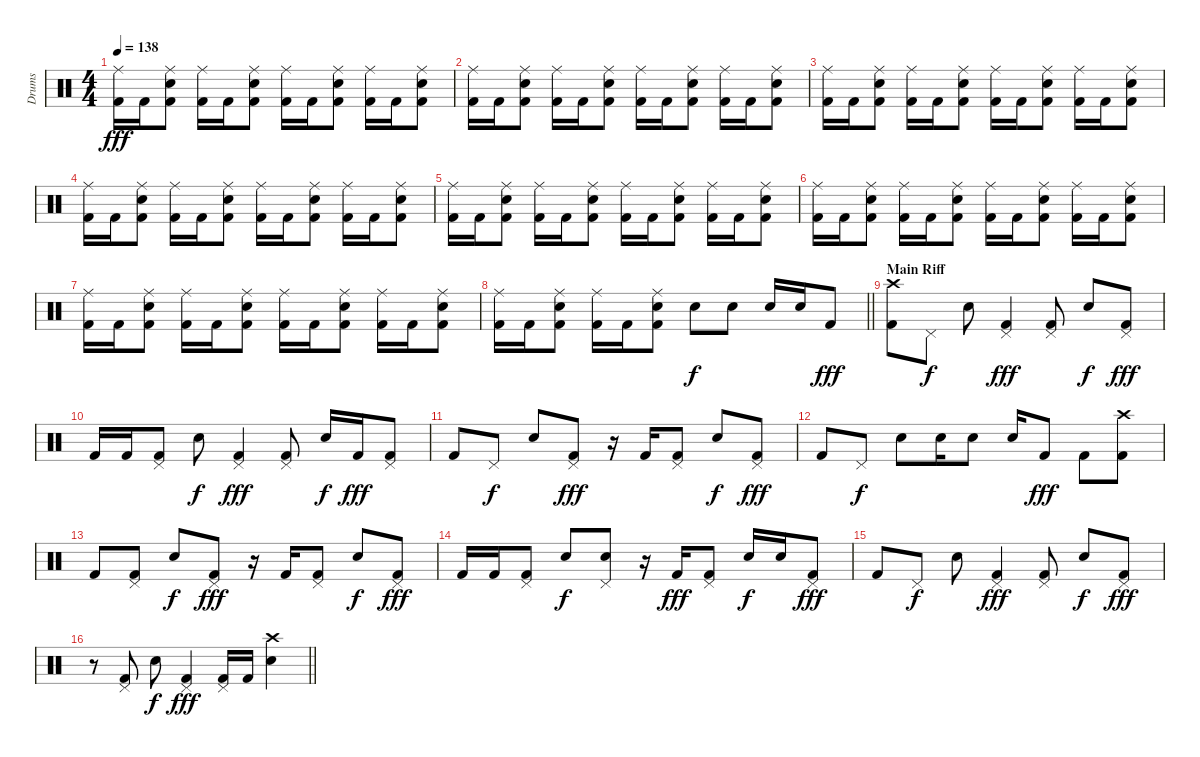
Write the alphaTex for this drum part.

\track ("Drums" "Drums") {instrument percussion}
\staff {score}
\articulation defaults
\ts (4 4)
\tempo 138
\clef neutral
\ks c
("Ride (middle)" "Kick (hit) 2").16{dy fff} "Kick (hit) 2".16 ("Ride (middle)" "Electric Snare (hit)" "Kick (hit) 2").8 ("Ride (middle)" "Kick (hit) 2").16 "Kick (hit) 2".16 ("Ride (middle)" "Electric Snare (hit)" "Kick (hit) 2").8 ("Ride (middle)" "Kick (hit) 2").16 "Kick (hit) 2".16 ("Ride (middle)" "Electric Snare (hit)" "Kick (hit) 2").8 ("Ride (middle)" "Kick (hit) 2").16 "Kick (hit) 2".16 ("Ride (middle)" "Electric Snare (hit)" "Kick (hit) 2").8 |
("Ride (middle)" "Kick (hit) 2").16 "Kick (hit) 2".16 ("Ride (middle)" "Electric Snare (hit)" "Kick (hit) 2").8 ("Ride (middle)" "Kick (hit) 2").16 "Kick (hit) 2".16 ("Ride (middle)" "Electric Snare (hit)" "Kick (hit) 2").8 ("Ride (middle)" "Kick (hit) 2").16 "Kick (hit) 2".16 ("Ride (middle)" "Electric Snare (hit)" "Kick (hit) 2").8 ("Ride (middle)" "Kick (hit) 2").16 "Kick (hit) 2".16 ("Ride (middle)" "Electric Snare (hit)" "Kick (hit) 2").8 |
("Ride (middle)" "Kick (hit) 2").16 "Kick (hit) 2".16 ("Ride (middle)" "Electric Snare (hit)" "Kick (hit) 2").8 ("Ride (middle)" "Kick (hit) 2").16 "Kick (hit) 2".16 ("Ride (middle)" "Electric Snare (hit)" "Kick (hit) 2").8 ("Ride (middle)" "Kick (hit) 2").16 "Kick (hit) 2".16 ("Ride (middle)" "Electric Snare (hit)" "Kick (hit) 2").8 ("Ride (middle)" "Kick (hit) 2").16 "Kick (hit) 2".16 ("Ride (middle)" "Electric Snare (hit)" "Kick (hit) 2").8 |
("Ride (middle)" "Kick (hit) 2").16 "Kick (hit) 2".16 ("Ride (middle)" "Electric Snare (hit)" "Kick (hit) 2").8 ("Ride (middle)" "Kick (hit) 2").16 "Kick (hit) 2".16 ("Ride (middle)" "Electric Snare (hit)" "Kick (hit) 2").8 ("Ride (middle)" "Kick (hit) 2").16 "Kick (hit) 2".16 ("Ride (middle)" "Electric Snare (hit)" "Kick (hit) 2").8 ("Ride (middle)" "Kick (hit) 2").16 "Kick (hit) 2".16 ("Ride (middle)" "Electric Snare (hit)" "Kick (hit) 2").8 |
("Ride (middle)" "Kick (hit) 2").16 "Kick (hit) 2".16 ("Ride (middle)" "Electric Snare (hit)" "Kick (hit) 2").8 ("Ride (middle)" "Kick (hit) 2").16 "Kick (hit) 2".16 ("Ride (middle)" "Electric Snare (hit)" "Kick (hit) 2").8 ("Ride (middle)" "Kick (hit) 2").16 "Kick (hit) 2".16 ("Ride (middle)" "Electric Snare (hit)" "Kick (hit) 2").8 ("Ride (middle)" "Kick (hit) 2").16 "Kick (hit) 2".16 ("Ride (middle)" "Electric Snare (hit)" "Kick (hit) 2").8 |
("Ride (middle)" "Kick (hit) 2").16 "Kick (hit) 2".16 ("Ride (middle)" "Electric Snare (hit)" "Kick (hit) 2").8 ("Ride (middle)" "Kick (hit) 2").16 "Kick (hit) 2".16 ("Ride (middle)" "Electric Snare (hit)" "Kick (hit) 2").8 ("Ride (middle)" "Kick (hit) 2").16 "Kick (hit) 2".16 ("Ride (middle)" "Electric Snare (hit)" "Kick (hit) 2").8 ("Ride (middle)" "Kick (hit) 2").16 "Kick (hit) 2".16 ("Ride (middle)" "Electric Snare (hit)" "Kick (hit) 2").8 |
("Ride (middle)" "Kick (hit) 2").16 "Kick (hit) 2".16 ("Ride (middle)" "Electric Snare (hit)" "Kick (hit) 2").8 ("Ride (middle)" "Kick (hit) 2").16 "Kick (hit) 2".16 ("Ride (middle)" "Electric Snare (hit)" "Kick (hit) 2").8 ("Ride (middle)" "Kick (hit) 2").16 "Kick (hit) 2".16 ("Ride (middle)" "Electric Snare (hit)" "Kick (hit) 2").8 ("Ride (middle)" "Kick (hit) 2").16 "Kick (hit) 2".16 ("Ride (middle)" "Electric Snare (hit)" "Kick (hit) 2").8 |
\barLineRight lightlight
("Ride (middle)" "Kick (hit) 2").16 "Kick (hit) 2".16 ("Ride (middle)" "Electric Snare (hit)" "Kick (hit) 2").8 ("Ride (middle)" "Kick (hit) 2").16 "Kick (hit) 2".16 ("Ride (middle)" "Electric Snare (hit)" "Kick (hit) 2").8 "Electric Snare (hit)".8{dy f} "Electric Snare (hit)".8 "Electric Snare (hit)".16 "Electric Snare (hit)".16 "Kick (hit) 2".8{dy fff} |
\section ("" "Main Riff")
("Crash high (hit)" "Kick (hit) 2").8 "Pedal Hi-Hat (hit)".8{dy f} "Electric Snare (hit)".8 ("Pedal Hi-Hat (hit)" "Kick (hit) 2").4{dy fff} ("Pedal Hi-Hat (hit)" "Kick (hit) 2").8 "Electric Snare (hit)".8{dy f} ("Pedal Hi-Hat (hit)" "Kick (hit) 2").8{dy fff} |
"Kick (hit) 2".16 "Kick (hit) 2".16 ("Pedal Hi-Hat (hit)" "Kick (hit) 2").8 "Electric Snare (hit)".8{dy f} ("Pedal Hi-Hat (hit)" "Kick (hit) 2").4{dy fff} ("Pedal Hi-Hat (hit)" "Kick (hit) 2").8 "Electric Snare (hit)".16{dy f} "Kick (hit) 2".16{dy fff} ("Pedal Hi-Hat (hit)" "Kick (hit) 2").8 |
"Kick (hit) 2".8 "Pedal Hi-Hat (hit)".8{dy f} "Electric Snare (hit)".8 ("Pedal Hi-Hat (hit)" "Kick (hit) 2").8{dy fff} r.16 "Kick (hit) 2".16 ("Pedal Hi-Hat (hit)" "Kick (hit) 2").8 "Electric Snare (hit)".8{dy f} ("Pedal Hi-Hat (hit)" "Kick (hit) 2").8{dy fff} |
"Kick (hit) 2".8 "Pedal Hi-Hat (hit)".8{dy f} "Electric Snare (hit)".8 "Electric Snare (hit)".16 "Electric Snare (hit)".8 "Electric Snare (hit)".16 "Kick (hit) 2".8{dy fff} "Kick (hit) 2".8 ("Crash high (hit)" "Kick (hit) 2").8 |
"Kick (hit) 2".8 ("Pedal Hi-Hat (hit)" "Kick (hit) 2").8 "Electric Snare (hit)".8{dy f} ("Pedal Hi-Hat (hit)" "Kick (hit) 2").8{dy fff} r.16 "Kick (hit) 2".16 ("Pedal Hi-Hat (hit)" "Kick (hit) 2").8 "Electric Snare (hit)".8{dy f} ("Pedal Hi-Hat (hit)" "Kick (hit) 2").8{dy fff} |
"Kick (hit) 2".16 "Kick (hit) 2".16 ("Pedal Hi-Hat (hit)" "Kick (hit) 2").8 "Electric Snare (hit)".8{dy f} ("Pedal Hi-Hat (hit)" "Electric Snare (hit)").8 r.16 "Kick (hit) 2".16{dy fff} ("Pedal Hi-Hat (hit)" "Kick (hit) 2").8 "Electric Snare (hit)".16{dy f} "Electric Snare (hit)".16 ("Pedal Hi-Hat (hit)" "Kick (hit) 2").8{dy fff} |
"Kick (hit) 2".8 "Pedal Hi-Hat (hit)".8{dy f} "Electric Snare (hit)".8 ("Pedal Hi-Hat (hit)" "Kick (hit) 2").4{dy fff} ("Pedal Hi-Hat (hit)" "Kick (hit) 2").8 "Electric Snare (hit)".8{dy f} ("Pedal Hi-Hat (hit)" "Kick (hit) 2").8{dy fff} |
\barLineRight lightlight
r.8 ("Pedal Hi-Hat (hit)" "Kick (hit) 2").8 "Electric Snare (hit)".8{dy f} ("Pedal Hi-Hat (hit)" "Kick (hit) 2").4{dy fff} ("Pedal Hi-Hat (hit)" "Kick (hit) 2").16 "Kick (hit) 2".16 ("Crash high (hit)" "Electric Snare (hit)").4
